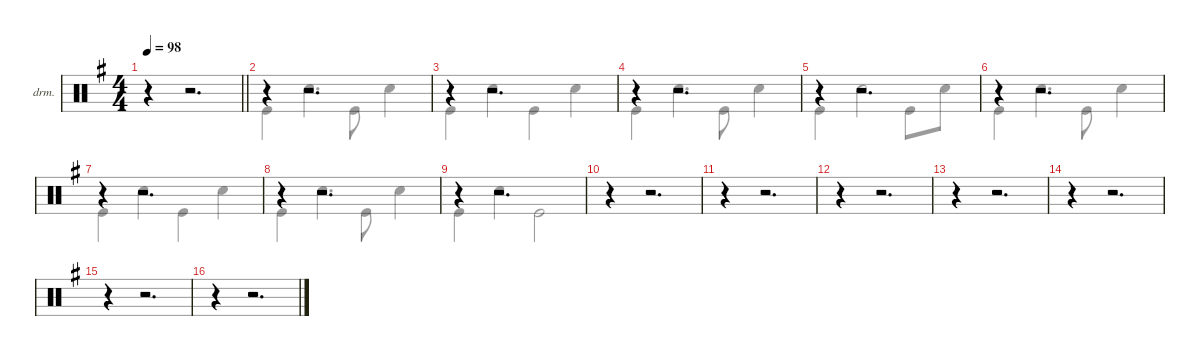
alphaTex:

\defaultSystemsLayout 4
\hideDynamics
\bracketExtendMode nobrackets
\firstSystemTrackNameOrientation horizontal
\otherSystemsTrackNameOrientation horizontal
\track ("Percussion" "drm.") {instrument percussion}
\staff {score}
\articulation defaults
\voice
\ts (4 4)
\tempo 98
\clef neutral
\barLineRight lightlight
\ks eminor
r.4{dy mf} r.2{d} |
r.4 r.2{d} |
r.4 r.2{d} |
r.4 r.2{d} |
r.4 r.2{d} |
r.4 r.2{d} |
r.4 r.2{d} |
r.4 r.2{d} |
r.4 r.2{d} |
r.4 r.2{d} |
r.4 r.2{d} |
r.4 r.2{d} |
r.4 r.2{d} |
r.4 r.2{d} |
r.4 r.2{d} |
r.4 r.2{d}
\voice
\clef neutral
\ottava regular
\simile none
\barLineRight lightlight
\ks eminor
|
"Kick (hit)"{acc forcenatural}.4 "Snare (hit) 2"{acc forcenatural}.4{d} "Kick (hit)"{acc forcenatural}.8 "Snare (hit) 2"{acc forcenatural}.4 |
"Kick (hit)"{acc forcenatural}.4 "Snare (hit) 2"{acc forcenatural}.4 "Kick (hit)"{acc forcenatural}.4 "Snare (hit) 2"{acc forcenatural}.4 |
"Kick (hit)"{acc forcenatural}.4 "Snare (hit) 2"{acc forcenatural}.4{d} "Kick (hit)"{acc forcenatural}.8 "Snare (hit) 2"{acc forcenatural}.4 |
"Kick (hit)"{acc forcenatural}.4 "Snare (hit) 2"{acc forcenatural}.2 "Kick (hit)"{acc forcenatural}.8 "Snare (hit) 2"{acc forcenatural}.8 |
"Kick (hit)"{acc forcenatural}.4 "Snare (hit) 2"{acc forcenatural}.4{d} "Kick (hit)"{acc forcenatural}.8 "Snare (hit) 2"{acc forcenatural}.4 |
"Kick (hit)"{acc forcenatural}.4 "Snare (hit) 2"{acc forcenatural}.4 "Kick (hit)"{acc forcenatural}.4 "Snare (hit) 2"{acc forcenatural}.4 |
"Kick (hit)"{acc forcenatural}.4 "Snare (hit) 2"{acc forcenatural}.4{d} "Kick (hit)"{acc forcenatural}.8 "Snare (hit) 2"{acc forcenatural}.4 |
"Kick (hit)"{acc forcenatural}.4 "Snare (hit) 2"{acc forcenatural}.4 "Kick (hit)"{acc forcenatural}.2 |
|
|
|
|
|
|
